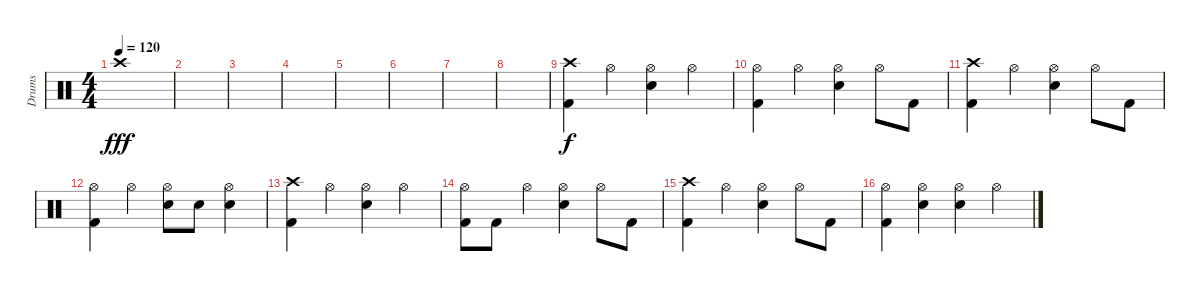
\track ("Drums" "Drums") {instrument percussion}
\staff {score}
\articulation defaults
\ts (4 4)
\tempo 120
\clef neutral
\ks c "Crash high (hit)".1{dy fff}
|
|
|
|
|
|
|
|
("Crash high (hit)" "Kick (hit) 2").4{dy f} "Hi-Hat (open)".4 ("Hi-Hat (open)" "Snare (hit) 2").4 "Hi-Hat (open)".4 |
("Hi-Hat (open)" "Kick (hit) 2").4 "Hi-Hat (open)".4 ("Hi-Hat (open)" "Snare (hit) 2").4 "Hi-Hat (open)".8 "Kick (hit) 2".8 |
("Crash high (hit)" "Kick (hit) 2").4 "Hi-Hat (open)".4 ("Hi-Hat (open)" "Snare (hit) 2").4 "Hi-Hat (open)".8 "Kick (hit) 2".8 |
("Hi-Hat (open)" "Kick (hit) 2").4 "Hi-Hat (open)".4 ("Hi-Hat (open)" "Snare (hit) 2").8 "Snare (hit) 2".8 ("Hi-Hat (open)" "Snare (hit) 2").4 |
("Crash high (hit)" "Kick (hit) 2").4 "Hi-Hat (open)".4 ("Hi-Hat (open)" "Snare (hit) 2").4 "Hi-Hat (open)".4 |
("Hi-Hat (open)" "Kick (hit) 2").8 "Kick (hit) 2".8 "Hi-Hat (open)".4 ("Hi-Hat (open)" "Snare (hit) 2").4 "Hi-Hat (open)".8 "Kick (hit) 2".8 |
("Crash high (hit)" "Kick (hit) 2").4 "Hi-Hat (open)".4 ("Hi-Hat (open)" "Snare (hit) 2").4 "Hi-Hat (open)".8 "Kick (hit) 2".8 |
("Hi-Hat (open)" "Kick (hit) 2").4 ("Hi-Hat (open)" "Snare (hit) 2").4 ("Hi-Hat (open)" "Snare (hit) 2").4 "Hi-Hat (open)".4
